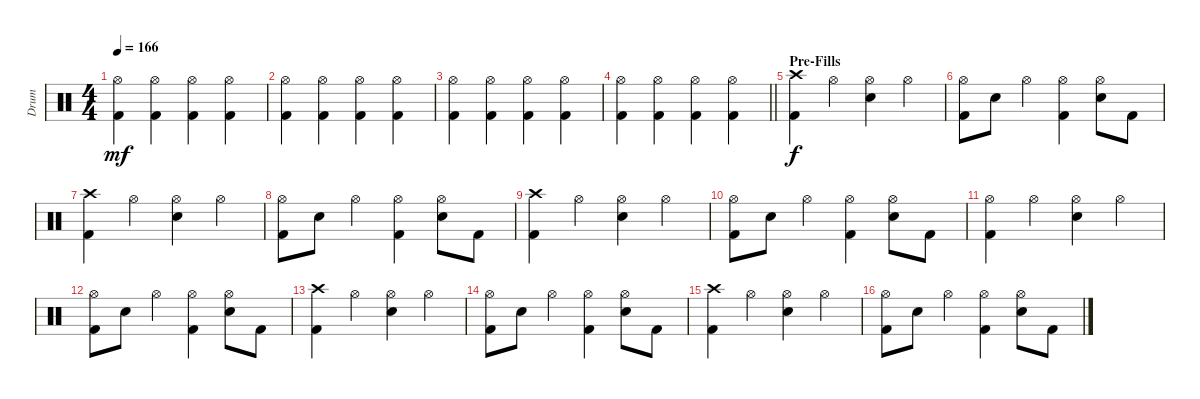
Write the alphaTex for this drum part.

\track ("Drum" "Drum") {instrument percussion}
\staff {score}
\articulation defaults
\ts (4 4)
\tempo 166
\clef neutral
\ks c
("Hi-Hat (open)" "Kick (hit) 2").4{dy mf} ("Hi-Hat (open)" "Kick (hit) 2").4 ("Hi-Hat (open)" "Kick (hit) 2").4 ("Hi-Hat (open)" "Kick (hit) 2").4 |
("Hi-Hat (open)" "Kick (hit) 2").4 ("Hi-Hat (open)" "Kick (hit) 2").4 ("Hi-Hat (open)" "Kick (hit) 2").4 ("Hi-Hat (open)" "Kick (hit) 2").4 |
("Hi-Hat (open)" "Kick (hit) 2").4 ("Hi-Hat (open)" "Kick (hit) 2").4 ("Hi-Hat (open)" "Kick (hit) 2").4 ("Hi-Hat (open)" "Kick (hit) 2").4 |
\barLineRight lightlight
("Hi-Hat (open)" "Kick (hit) 2").4 ("Hi-Hat (open)" "Kick (hit) 2").4 ("Hi-Hat (open)" "Kick (hit) 2").4 ("Hi-Hat (open)" "Kick (hit) 2").4 |
\section ("" "Pre-Fills")
("Crash high (hit)" "Kick (hit) 2").4{dy f volume 12} "Hi-Hat (open)".4 ("Hi-Hat (open)" "Snare (hit) 2").4 "Hi-Hat (open)".4 |
("Hi-Hat (open)" "Kick (hit) 2").8 "Snare (hit) 2".8 "Hi-Hat (open)".4 ("Hi-Hat (open)" "Kick (hit) 2").4 ("Hi-Hat (open)" "Snare (hit) 2").8 "Kick (hit) 2".8 |
("Crash high (hit)" "Kick (hit) 2").4 "Hi-Hat (open)".4 ("Hi-Hat (open)" "Snare (hit) 2").4 "Hi-Hat (open)".4 |
("Hi-Hat (open)" "Kick (hit) 2").8 "Snare (hit) 2".8 "Hi-Hat (open)".4 ("Hi-Hat (open)" "Kick (hit) 2").4 ("Hi-Hat (open)" "Snare (hit) 2").8 "Kick (hit) 2".8 |
("Crash high (hit)" "Kick (hit) 2").4 "Hi-Hat (open)".4 ("Hi-Hat (open)" "Snare (hit) 2").4 "Hi-Hat (open)".4 |
("Hi-Hat (open)" "Kick (hit) 2").8 "Snare (hit) 2".8 "Hi-Hat (open)".4 ("Hi-Hat (open)" "Kick (hit) 2").4 ("Hi-Hat (open)" "Snare (hit) 2").8 "Kick (hit) 2".8 |
("Hi-Hat (open)" "Kick (hit) 2").4 "Hi-Hat (open)".4 ("Hi-Hat (open)" "Snare (hit) 2").4 "Hi-Hat (open)".4 |
("Hi-Hat (open)" "Kick (hit) 2").8 "Snare (hit) 2".8 "Hi-Hat (open)".4 ("Hi-Hat (open)" "Kick (hit) 2").4 ("Hi-Hat (open)" "Snare (hit) 2").8 "Kick (hit) 2".8 |
("Crash high (hit)" "Kick (hit) 2").4 "Hi-Hat (open)".4 ("Hi-Hat (open)" "Snare (hit) 2").4 "Hi-Hat (open)".4 |
("Hi-Hat (open)" "Kick (hit) 2").8 "Snare (hit) 2".8 "Hi-Hat (open)".4 ("Hi-Hat (open)" "Kick (hit) 2").4 ("Hi-Hat (open)" "Snare (hit) 2").8 "Kick (hit) 2".8 |
("Crash high (hit)" "Kick (hit) 2").4 "Hi-Hat (open)".4 ("Hi-Hat (open)" "Snare (hit) 2").4 "Hi-Hat (open)".4 |
("Hi-Hat (open)" "Kick (hit) 2").8 "Snare (hit) 2".8 "Hi-Hat (open)".4 ("Hi-Hat (open)" "Kick (hit) 2").4 ("Hi-Hat (open)" "Snare (hit) 2").8 "Kick (hit) 2".8
